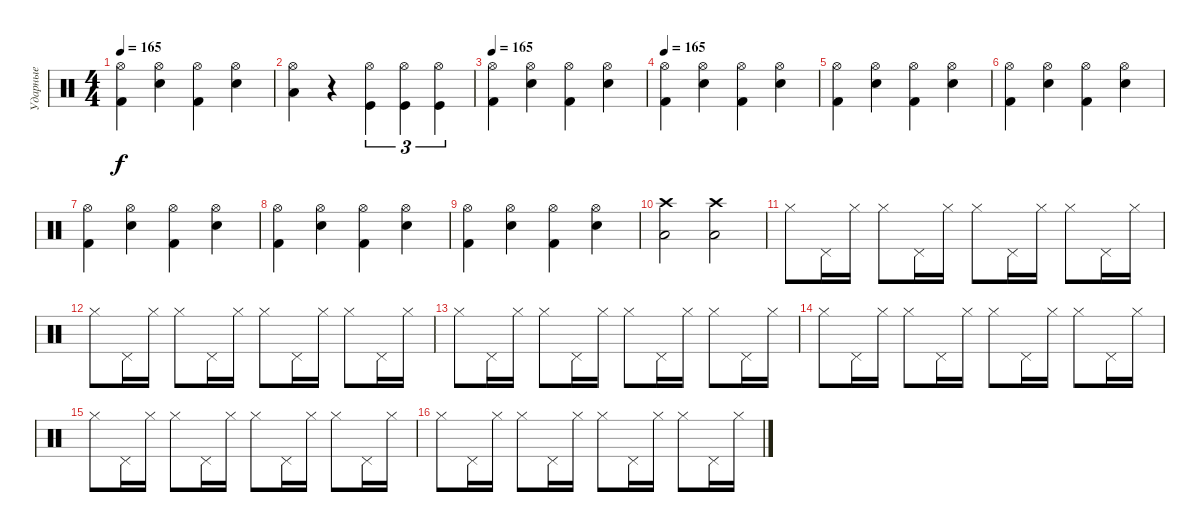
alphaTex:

\track ("Ударные" "Ударные") {instrument percussion}
\staff {score}
\articulation defaults
\ts (4 4)
\tempo 165
\clef neutral
\ks c
("Kick (hit) 2" "Hi-Hat (open)").4{dy f} ("Snare (hit) 2" "Hi-Hat (open)").4 ("Hi-Hat (open)" "Kick (hit) 2").4 ("Snare (hit) 2" "Hi-Hat (open)").4 |
("Hi-Hat (open)" "Low Tom (hit)").4 r.4 ("Kick (hit)" "Hi-Hat (open)").4{tu (3 2)} ("Kick (hit)" "Hi-Hat (open)").4{tu (3 2)} ("Hi-Hat (open)" "Kick (hit)").4{tu (3 2)} |
\tempo 165
("Hi-Hat (open)" "Kick (hit) 2").4 ("Hi-Hat (open)" "Snare (hit) 2").4 ("Kick (hit) 2" "Hi-Hat (open)").4 ("Snare (hit) 2" "Hi-Hat (open)").4 |
\tempo 165
("Hi-Hat (open)" "Kick (hit) 2").4 ("Snare (hit) 2" "Hi-Hat (open)").4 ("Hi-Hat (open)" "Kick (hit) 2").4 ("Hi-Hat (open)" "Snare (hit) 2").4 |
("Kick (hit) 2" "Hi-Hat (open)").4 ("Hi-Hat (open)" "Snare (hit) 2").4 ("Hi-Hat (open)" "Kick (hit) 2").4 ("Hi-Hat (open)" "Snare (hit) 2").4 |
("Hi-Hat (open)" "Kick (hit) 2").4 ("Snare (hit) 2" "Hi-Hat (open)").4 ("Kick (hit) 2" "Hi-Hat (open)").4 ("Hi-Hat (open)" "Snare (hit) 2").4 |
("Hi-Hat (open)" "Kick (hit) 2").4 ("Snare (hit) 2" "Hi-Hat (open)").4 ("Hi-Hat (open)" "Kick (hit) 2").4 ("Hi-Hat (open)" "Snare (hit) 2").4 |
("Kick (hit) 2" "Hi-Hat (open)").4 ("Snare (hit) 2" "Hi-Hat (open)").4 ("Kick (hit) 2" "Hi-Hat (open)").4 ("Hi-Hat (open)" "Snare (hit) 2").4 |
("Hi-Hat (open)" "Kick (hit) 2").4 ("Snare (hit) 2" "Hi-Hat (open)").4 ("Hi-Hat (open)" "Kick (hit) 2").4 ("Hi-Hat (open)" "Snare (hit) 2").4 |
("Crash high (hit)" "Low Floor Tom (hit)").2 ("Low Floor Tom (hit)" "Crash high (hit)").2 |
"Hi-Hat (closed)".8 "Pedal Hi-Hat (hit)".16 "Hi-Hat (closed)".16 "Hi-Hat (closed)".8 "Pedal Hi-Hat (hit)".16 "Hi-Hat (closed)".16 "Hi-Hat (closed)".8 "Pedal Hi-Hat (hit)".16 "Hi-Hat (closed)".16 "Hi-Hat (closed)".8 "Pedal Hi-Hat (hit)".16 "Hi-Hat (closed)".16 |
"Hi-Hat (closed)".8 "Pedal Hi-Hat (hit)".16 "Hi-Hat (closed)".16 "Hi-Hat (closed)".8 "Pedal Hi-Hat (hit)".16 "Hi-Hat (closed)".16 "Hi-Hat (closed)".8 "Pedal Hi-Hat (hit)".16 "Hi-Hat (closed)".16 "Hi-Hat (closed)".8 "Pedal Hi-Hat (hit)".16 "Hi-Hat (closed)".16 |
"Hi-Hat (closed)".8 "Pedal Hi-Hat (hit)".16 "Hi-Hat (closed)".16 "Hi-Hat (closed)".8 "Pedal Hi-Hat (hit)".16 "Hi-Hat (closed)".16 "Hi-Hat (closed)".8 "Pedal Hi-Hat (hit)".16 "Hi-Hat (closed)".16 "Hi-Hat (closed)".8 "Pedal Hi-Hat (hit)".16 "Hi-Hat (closed)".16 |
"Hi-Hat (closed)".8 "Pedal Hi-Hat (hit)".16 "Hi-Hat (closed)".16 "Hi-Hat (closed)".8 "Pedal Hi-Hat (hit)".16 "Hi-Hat (closed)".16 "Hi-Hat (closed)".8 "Pedal Hi-Hat (hit)".16 "Hi-Hat (closed)".16 "Hi-Hat (closed)".8 "Pedal Hi-Hat (hit)".16 "Hi-Hat (closed)".16 |
"Hi-Hat (closed)".8 "Pedal Hi-Hat (hit)".16 "Hi-Hat (closed)".16 "Hi-Hat (closed)".8 "Pedal Hi-Hat (hit)".16 "Hi-Hat (closed)".16 "Hi-Hat (closed)".8 "Pedal Hi-Hat (hit)".16 "Hi-Hat (closed)".16 "Hi-Hat (closed)".8 "Pedal Hi-Hat (hit)".16 "Hi-Hat (closed)".16 |
"Hi-Hat (closed)".8 "Pedal Hi-Hat (hit)".16 "Hi-Hat (closed)".16 "Hi-Hat (closed)".8 "Pedal Hi-Hat (hit)".16 "Hi-Hat (closed)".16 "Hi-Hat (closed)".8 "Pedal Hi-Hat (hit)".16 "Hi-Hat (closed)".16 "Hi-Hat (closed)".8 "Pedal Hi-Hat (hit)".16 "Hi-Hat (closed)".16
